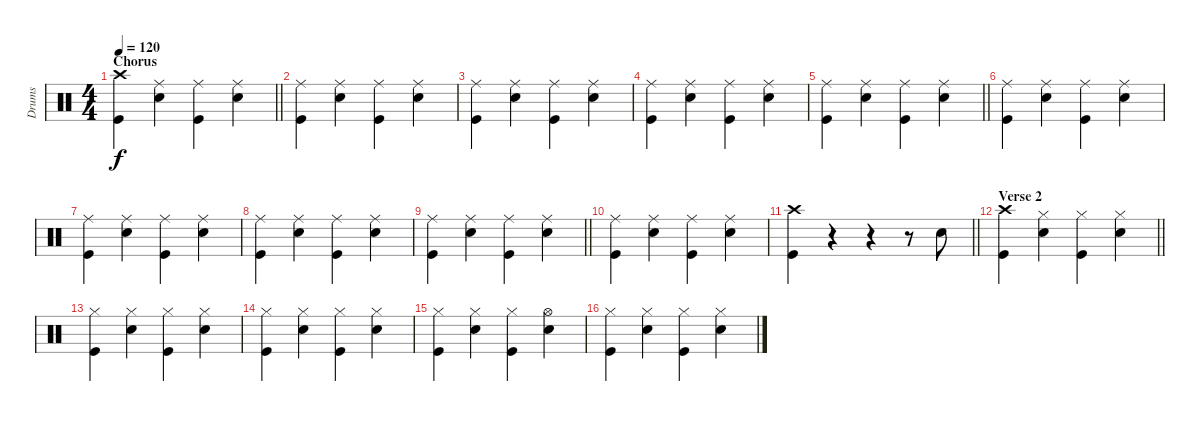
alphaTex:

\track ("Drums" "Drums") {instrument percussion}
\staff {score}
\articulation defaults
\ts (4 4)
\section ("" "Chorus")
\tempo 120
\clef neutral
\barLineRight lightlight
\ks c
("Crash high (hit)" "Kick (hit)").4{dy f} ("Ride (middle)" "Electric Snare (hit)").4 ("Ride (middle)" "Kick (hit)").4 ("Ride (middle)" "Electric Snare (hit)").4 |
("Ride (middle)" "Kick (hit)").4 ("Ride (middle)" "Electric Snare (hit)").4 ("Ride (middle)" "Kick (hit)").4 ("Ride (middle)" "Electric Snare (hit)").4 |
("Ride (middle)" "Kick (hit)").4 ("Ride (middle)" "Electric Snare (hit)").4 ("Ride (middle)" "Kick (hit)").4 ("Ride (middle)" "Electric Snare (hit)").4 |
("Ride (middle)" "Kick (hit)").4 ("Ride (middle)" "Electric Snare (hit)").4 ("Ride (middle)" "Kick (hit)").4 ("Ride (middle)" "Electric Snare (hit)").4 |
\barLineRight lightlight
("Ride (middle)" "Kick (hit)").4 ("Ride (middle)" "Electric Snare (hit)").4 ("Ride (middle)" "Kick (hit)").4 ("Ride (middle)" "Electric Snare (hit)").4 |
("Ride (middle)" "Kick (hit)").4 ("Ride (middle)" "Electric Snare (hit)").4 ("Ride (middle)" "Kick (hit)").4 ("Ride (middle)" "Electric Snare (hit)").4 |
("Ride (middle)" "Kick (hit)").4 ("Ride (middle)" "Electric Snare (hit)").4 ("Ride (middle)" "Kick (hit)").4 ("Ride (middle)" "Electric Snare (hit)").4 |
("Ride (middle)" "Kick (hit)").4 ("Ride (middle)" "Electric Snare (hit)").4 ("Ride (middle)" "Kick (hit)").4 ("Ride (middle)" "Electric Snare (hit)").4 |
\barLineRight lightlight
("Ride (middle)" "Kick (hit)").4 ("Ride (middle)" "Electric Snare (hit)").4 ("Ride (middle)" "Kick (hit)").4 ("Ride (middle)" "Electric Snare (hit)").4 |
("Ride (middle)" "Kick (hit)").4 ("Ride (middle)" "Electric Snare (hit)").4 ("Ride (middle)" "Kick (hit)").4 ("Ride (middle)" "Electric Snare (hit)").4 |
\barLineRight lightlight
("Crash high (hit)" "Kick (hit)").4 r.4 r.4 r.8 "Electric Snare (hit)".8 |
\section ("" "Verse 2")
\barLineRight lightlight
("Crash high (hit)" "Kick (hit)").4 ("Hi-Hat (closed)" "Electric Snare (hit)").4 ("Hi-Hat (closed)" "Kick (hit)").4 ("Hi-Hat (closed)" "Electric Snare (hit)").4 |
("Hi-Hat (closed)" "Kick (hit)").4 ("Hi-Hat (closed)" "Electric Snare (hit)").4 ("Hi-Hat (closed)" "Kick (hit)").4 ("Hi-Hat (closed)" "Electric Snare (hit)").4 |
("Hi-Hat (closed)" "Kick (hit)").4 ("Hi-Hat (closed)" "Electric Snare (hit)").4 ("Hi-Hat (closed)" "Kick (hit)").4 ("Hi-Hat (closed)" "Electric Snare (hit)").4 |
("Hi-Hat (closed)" "Kick (hit)").4 ("Hi-Hat (closed)" "Electric Snare (hit)").4 ("Hi-Hat (closed)" "Kick (hit)").4 ("Hi-Hat (open)" "Electric Snare (hit)").4 |
("Hi-Hat (closed)" "Kick (hit)").4 ("Hi-Hat (closed)" "Electric Snare (hit)").4 ("Hi-Hat (closed)" "Kick (hit)").4 ("Hi-Hat (closed)" "Electric Snare (hit)").4
